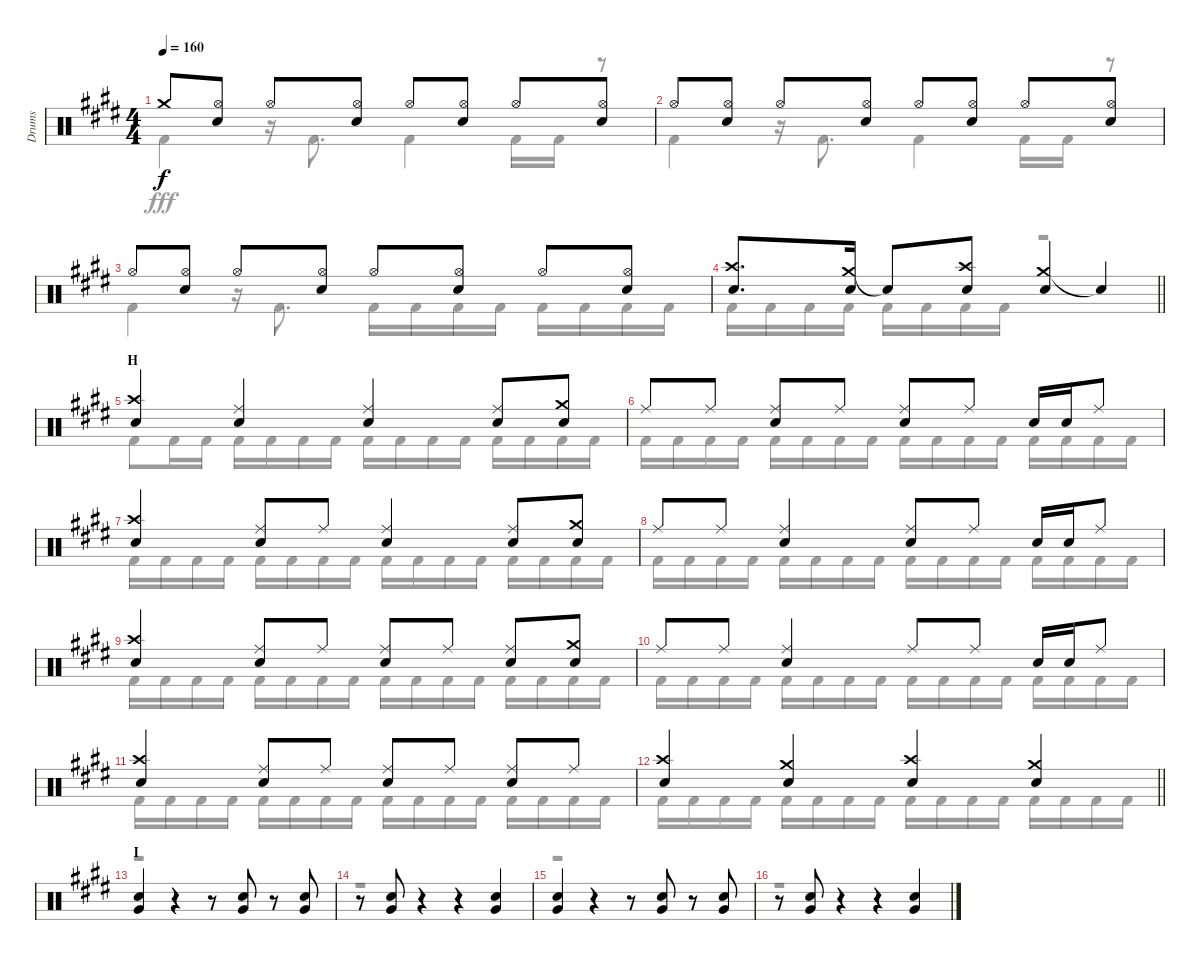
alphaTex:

\track ("Drums" "Drums") {instrument percussion}
\staff {score}
\articulation defaults
\voice
\ts (4 4)
\tempo 160
\clef neutral
\ks e "Crash medium (hit)".8{dy f}
("Hi-Hat (open)" "Snare (hit) 2").8 "Hi-Hat (open)".8 ("Hi-Hat (open)" "Snare (hit) 2").8 "Hi-Hat (open)".8 ("Hi-Hat (open)" "Snare (hit) 2").8 "Hi-Hat (open)".8 ("Hi-Hat (open)" "Snare (hit) 2").8 |
"Hi-Hat (open)".8 ("Hi-Hat (open)" "Snare (hit) 2").8 "Hi-Hat (open)".8 ("Hi-Hat (open)" "Snare (hit) 2").8 "Hi-Hat (open)".8 ("Hi-Hat (open)" "Snare (hit) 2").8 "Hi-Hat (open)".8 ("Hi-Hat (open)" "Snare (hit) 2").8 |
"Hi-Hat (open)".8 ("Hi-Hat (open)" "Snare (hit) 2").8 "Hi-Hat (open)".8 ("Hi-Hat (open)" "Snare (hit) 2").8 "Hi-Hat (open)".8 ("Hi-Hat (open)" "Snare (hit) 2").8 "Hi-Hat (open)".8 ("Hi-Hat (open)" "Snare (hit) 2").8 |
\barLineRight lightlight
("Crash high (hit)" "Snare (hit) 2").8{d} ("Crash medium (hit)" "Snare (hit) 2").16 "Snare (hit)"{t}.8 ("Crash high (hit)" "Snare (hit) 2").8 ("Crash medium (hit)" "Snare (hit) 2").4 "Snare (hit)"{t}.4 |
\section ("" "H")
("Crash high (hit)" "Snare (hit) 2").4 ("Ride (middle)" "Snare (hit) 2").4 ("Ride (middle)" "Snare (hit) 2").4 ("Ride (middle)" "Snare (hit) 2").8 ("Crash medium (hit)" "Snare (hit) 2").8 |
"Ride (middle)".8 "Ride (middle)".8 ("Ride (middle)" "Snare (hit) 2").8 "Ride (middle)".8 ("Ride (middle)" "Snare (hit) 2").8 "Ride (middle)".8 "Snare (hit) 2".16 "Snare (hit) 2".16 "Ride (middle)".8 |
("Crash high (hit)" "Snare (hit) 2").4 ("Ride (middle)" "Snare (hit) 2").8 "Ride (middle)".8 ("Ride (middle)" "Snare (hit) 2").4 ("Ride (middle)" "Snare (hit) 2").8 ("Crash medium (hit)" "Snare (hit) 2").8 |
"Ride (middle)".8 "Ride (middle)".8 ("Ride (middle)" "Snare (hit) 2").4 ("Ride (middle)" "Snare (hit) 2").8 "Ride (middle)".8 "Snare (hit) 2".16 "Snare (hit) 2".16 "Ride (middle)".8 |
("Crash high (hit)" "Snare (hit) 2").4 ("Ride (middle)" "Snare (hit) 2").8 "Ride (middle)".8 ("Ride (middle)" "Snare (hit) 2").8 "Ride (middle)".8 ("Ride (middle)" "Snare (hit) 2").8 ("Crash medium (hit)" "Snare (hit) 2").8 |
"Ride (middle)".8 "Ride (middle)".8 ("Ride (middle)" "Snare (hit) 2").4 "Ride (middle)".8 "Ride (middle)".8 "Snare (hit) 2".16 "Snare (hit) 2".16 "Ride (middle)".8 |
("Crash high (hit)" "Snare (hit) 2").4 ("Ride (middle)" "Snare (hit) 2").8 "Ride (middle)".8 ("Ride (middle)" "Snare (hit) 2").8 "Ride (middle)".8 ("Ride (middle)" "Snare (hit) 2").8 "Ride (middle)".8 |
\barLineRight lightlight
("Crash high (hit)" "Snare (hit) 2").4 ("Crash medium (hit)" "Snare (hit) 2").4 ("Crash high (hit)" "Snare (hit) 2").4 ("Crash medium (hit)" "Snare (hit) 2").4 |
\section ("" "I")
("Snare (hit) 2" "Very Low Tom (hit)").4 r.4 r.8 ("Snare (hit) 2" "Very Low Tom (hit)").8 r.8 ("Snare (hit) 2" "Very Low Tom (hit)").8 |
r.8 ("Snare (hit) 2" "Very Low Tom (hit)").8 r.4 r.4 ("Snare (hit) 2" "Very Low Tom (hit)").4 |
("Snare (hit) 2" "Very Low Tom (hit)").4 r.4 r.8 ("Snare (hit) 2" "Very Low Tom (hit)").8 r.8 ("Snare (hit) 2" "Very Low Tom (hit)").8 |
r.8 ("Snare (hit) 2" "Very Low Tom (hit)").8 r.4 r.4 ("Snare (hit) 2" "Very Low Tom (hit)").4
\voice
\clef neutral
\ottava regular
\simile none
\ks e "Kick (hit) 2".4{dy fff}
r.16 "Kick (hit) 2".8{d} "Kick (hit) 2".4 "Kick (hit) 2".16 "Kick (hit) 2".16 r.8 |
"Kick (hit) 2".4 r.16 "Kick (hit) 2".8{d} "Kick (hit) 2".4 "Kick (hit) 2".16 "Kick (hit) 2".16 r.8 |
"Kick (hit) 2".4 r.16 "Kick (hit) 2".8{d} "Kick (hit) 2".16 "Kick (hit) 2".16 "Kick (hit) 2".16 "Kick (hit) 2".16 "Kick (hit) 2".16 "Kick (hit) 2".16 "Kick (hit) 2".16 "Kick (hit) 2".16 |
\barLineRight lightlight "Kick (hit) 2".16 "Kick (hit) 2".16 "Kick (hit) 2".16 "Kick (hit) 2".16 "Kick (hit) 2".16 "Kick (hit) 2".16 "Kick (hit) 2".16 "Kick (hit) 2".16
r.2 |
"Kick (hit) 2".8 "Kick (hit) 2".16 "Kick (hit) 2".16 "Kick (hit) 2".16 "Kick (hit) 2".16 "Kick (hit) 2".16 "Kick (hit) 2".16 "Kick (hit) 2".16 "Kick (hit) 2".16 "Kick (hit) 2".16 "Kick (hit) 2".16 "Kick (hit) 2".16 "Kick (hit) 2".16 "Kick (hit) 2".16 "Kick (hit) 2".16 |
"Kick (hit) 2".16 "Kick (hit) 2".16 "Kick (hit) 2".16 "Kick (hit) 2".16 "Kick (hit) 2".16 "Kick (hit) 2".16 "Kick (hit) 2".16 "Kick (hit) 2".16 "Kick (hit) 2".16 "Kick (hit) 2".16 "Kick (hit) 2".16 "Kick (hit) 2".16 "Kick (hit) 2".16 "Kick (hit) 2".16 "Kick (hit) 2".16 "Kick (hit) 2".16 |
"Kick (hit) 2".16 "Kick (hit) 2".16 "Kick (hit) 2".16 "Kick (hit) 2".16 "Kick (hit) 2".16 "Kick (hit) 2".16 "Kick (hit) 2".16 "Kick (hit) 2".16 "Kick (hit) 2".16 "Kick (hit) 2".16 "Kick (hit) 2".16 "Kick (hit) 2".16 "Kick (hit) 2".16 "Kick (hit) 2".16 "Kick (hit) 2".16 "Kick (hit) 2".16 |
"Kick (hit) 2".16 "Kick (hit) 2".16 "Kick (hit) 2".16 "Kick (hit) 2".16 "Kick (hit) 2".16 "Kick (hit) 2".16 "Kick (hit) 2".16 "Kick (hit) 2".16 "Kick (hit) 2".16 "Kick (hit) 2".16 "Kick (hit) 2".16 "Kick (hit) 2".16 "Kick (hit) 2".16 "Kick (hit) 2".16 "Kick (hit) 2".16 "Kick (hit) 2".16 |
"Kick (hit) 2".16 "Kick (hit) 2".16 "Kick (hit) 2".16 "Kick (hit) 2".16 "Kick (hit) 2".16 "Kick (hit) 2".16 "Kick (hit) 2".16 "Kick (hit) 2".16 "Kick (hit) 2".16 "Kick (hit) 2".16 "Kick (hit) 2".16 "Kick (hit) 2".16 "Kick (hit) 2".16 "Kick (hit) 2".16 "Kick (hit) 2".16 "Kick (hit) 2".16 |
"Kick (hit) 2".16 "Kick (hit) 2".16 "Kick (hit) 2".16 "Kick (hit) 2".16 "Kick (hit) 2".16 "Kick (hit) 2".16 "Kick (hit) 2".16 "Kick (hit) 2".16 "Kick (hit) 2".16 "Kick (hit) 2".16 "Kick (hit) 2".16 "Kick (hit) 2".16 "Kick (hit) 2".16 "Kick (hit) 2".16 "Kick (hit) 2".16 "Kick (hit) 2".16 |
"Kick (hit) 2".16 "Kick (hit) 2".16 "Kick (hit) 2".16 "Kick (hit) 2".16 "Kick (hit) 2".16 "Kick (hit) 2".16 "Kick (hit) 2".16 "Kick (hit) 2".16 "Kick (hit) 2".16 "Kick (hit) 2".16 "Kick (hit) 2".16 "Kick (hit) 2".16 "Kick (hit) 2".16 "Kick (hit) 2".16 "Kick (hit) 2".16 "Kick (hit) 2".16 |
\barLineRight lightlight "Kick (hit) 2".16 "Kick (hit) 2".16 "Kick (hit) 2".16 "Kick (hit) 2".16 "Kick (hit) 2".16 "Kick (hit) 2".16 "Kick (hit) 2".16 "Kick (hit) 2".16 "Kick (hit) 2".16 "Kick (hit) 2".16 "Kick (hit) 2".16 "Kick (hit) 2".16 "Kick (hit) 2".16 "Kick (hit) 2".16 "Kick (hit) 2".16 "Kick (hit) 2".16
|
r.1 |
r.1 |
r.1 |
r.1
